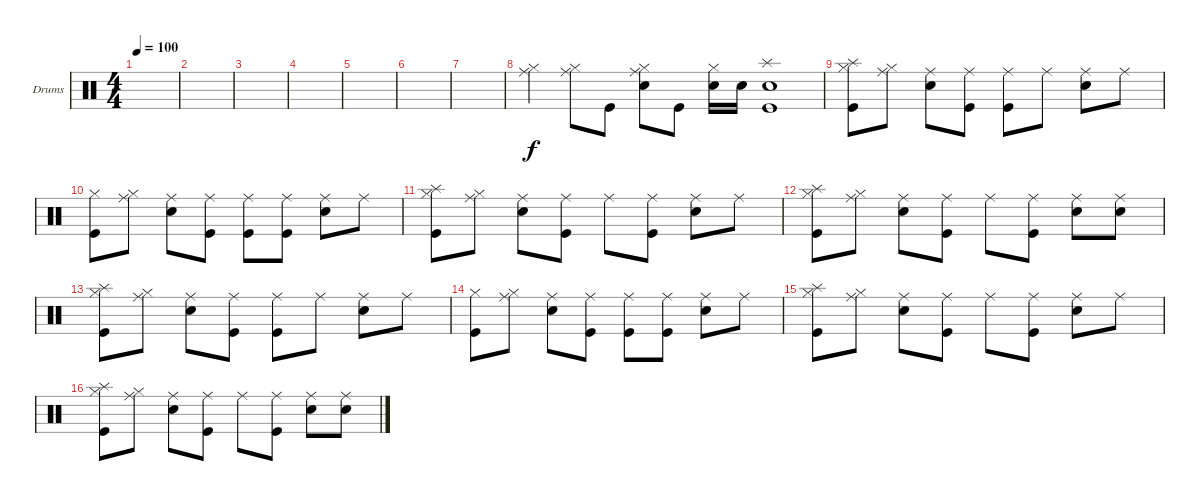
\defaultSystemsLayout 4
\bracketExtendMode groupsimilarinstruments
\firstSystemTrackNameOrientation horizontal
\otherSystemsTrackNameOrientation horizontal
\track ("Drumkit" "Drums") {instrument percussion}
\staff {score}
\articulation defaults
\ts (4 4)
\tempo 100
\clef neutral
\scale
0.472222
\ks c
|
\scale
0.263889 |
\scale
0.263889 |
\scale
0.333333 |
\scale
0.333333 |
\scale
0.333333 |
|
("Hi-Hat (closed)" "Ride (middle)").4 ("Hi-Hat (closed)" "Ride (middle)").8 "Kick (hit)".8 ("Hi-Hat (closed)" "Ride (middle)" "Snare (hit) 2").8 "Kick (hit)".8 ("Snare (hit) 2" "Hi-Hat (closed)").16 "Snare (hit) 2".16 ("Snare (hit) 2" "Kick (hit)" "Splash (hit)").1 |
("Splash (hit)" "Hi-Hat (closed)" "Kick (hit)").8 ("Hi-Hat (closed)" "Ride (middle)").8 ("Ride (middle)" "Snare (hit) 2").8 ("Ride (middle)" "Kick (hit)").8 ("Ride (middle)" "Kick (hit)").8 "Ride (middle)".8 ("Ride (middle)" "Snare (hit) 2").8 "Ride (middle)".8 |
("Hi-Hat (closed)" "Kick (hit)").8 ("Hi-Hat (closed)" "Ride (middle)").8 ("Ride (middle)" "Snare (hit) 2").8 ("Ride (middle)" "Kick (hit)").8 ("Ride (middle)" "Kick (hit)").8 ("Ride (middle)" "Kick (hit)").8 ("Ride (middle)" "Snare (hit) 2").8 "Ride (middle)".8 |
("Splash (hit)" "Hi-Hat (closed)" "Kick (hit)").8 ("Hi-Hat (closed)" "Ride (middle)").8 ("Ride (middle)" "Snare (hit) 2").8 ("Ride (middle)" "Kick (hit)").8 "Ride (middle)".8 ("Ride (middle)" "Kick (hit)").8 ("Ride (middle)" "Snare (hit) 2").8 "Ride (middle)".8 |
("Splash (hit)" "Hi-Hat (closed)" "Kick (hit)").8 ("Hi-Hat (closed)" "Ride (middle)").8 ("Ride (middle)" "Snare (hit) 2").8 ("Ride (middle)" "Kick (hit)").8 "Ride (middle)".8 ("Ride (middle)" "Kick (hit)").8 ("Ride (middle)" "Snare (hit) 2").8 ("Ride (middle)" "Snare (hit) 2").8 |
("Splash (hit)" "Hi-Hat (closed)" "Kick (hit)").8 ("Hi-Hat (closed)" "Ride (middle)").8 ("Ride (middle)" "Snare (hit) 2").8 ("Ride (middle)" "Kick (hit)").8 ("Ride (middle)" "Kick (hit)").8 "Ride (middle)".8 ("Ride (middle)" "Snare (hit) 2").8 "Ride (middle)".8 |
("Hi-Hat (closed)" "Kick (hit)").8 ("Hi-Hat (closed)" "Ride (middle)").8 ("Ride (middle)" "Snare (hit) 2").8 ("Ride (middle)" "Kick (hit)").8 ("Ride (middle)" "Kick (hit)").8 ("Ride (middle)" "Kick (hit)").8 ("Ride (middle)" "Snare (hit) 2").8 "Ride (middle)".8 |
("Splash (hit)" "Hi-Hat (closed)" "Kick (hit)").8 ("Hi-Hat (closed)" "Ride (middle)").8 ("Ride (middle)" "Snare (hit) 2").8 ("Ride (middle)" "Kick (hit)").8 "Ride (middle)".8 ("Ride (middle)" "Kick (hit)").8 ("Ride (middle)" "Snare (hit) 2").8 "Ride (middle)".8 |
("Splash (hit)" "Hi-Hat (closed)" "Kick (hit)").8 ("Hi-Hat (closed)" "Ride (middle)").8 ("Ride (middle)" "Snare (hit) 2").8 ("Ride (middle)" "Kick (hit)").8 "Ride (middle)".8 ("Ride (middle)" "Kick (hit)").8 ("Ride (middle)" "Snare (hit) 2").8 ("Ride (middle)" "Snare (hit) 2").8
